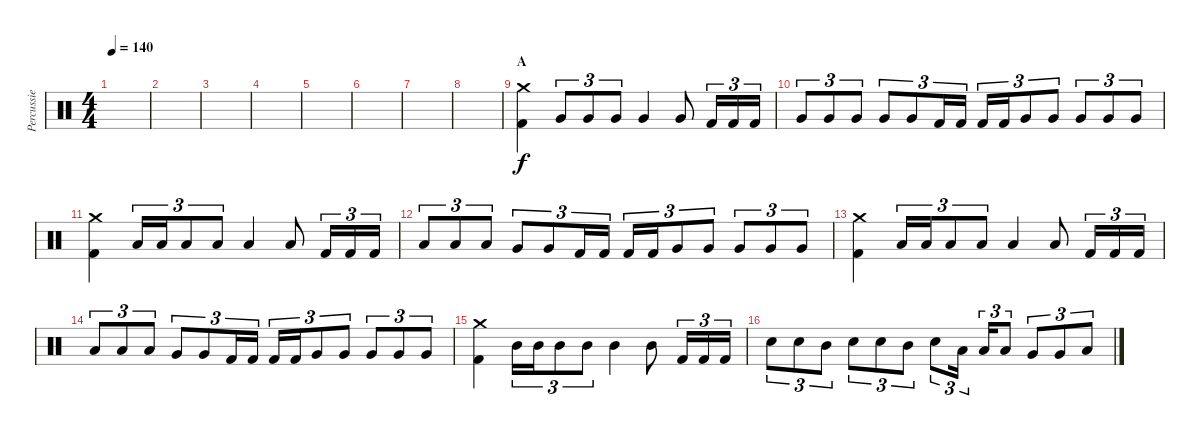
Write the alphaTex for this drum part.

\track ("Percussie" "Percussie") {instrument percussion}
\staff {score}
\articulation defaults
\ts (4 4)
\tempo 140
\clef neutral
\ks c
|
|
|
|
|
|
|
|
\section ("" "A")
("Crash medium (hit)" "Kick (hit) 2").4{volume 13} "Very Low Tom (hit)".8{tu (3 2)} "Very Low Tom (hit)".8{tu (3 2)} "Very Low Tom (hit)".8{tu (3 2)} "Very Low Tom (hit)".4 "Very Low Tom (hit)".8 "Kick (hit) 2".16{tu (3 2)} "Kick (hit) 2".16{tu (3 2)} "Kick (hit) 2".16{tu (3 2)} |
"Very Low Tom (hit)".8{tu (3 2)} "Very Low Tom (hit)".8{tu (3 2)} "Very Low Tom (hit)".8{tu (3 2)} "Very Low Tom (hit)".8{tu (3 2)} "Very Low Tom (hit)".8{tu (3 2)} "Kick (hit) 2".16{tu (3 2)} "Kick (hit) 2".16{tu (3 2)} "Kick (hit) 2".16{tu (3 2)} "Kick (hit) 2".16{tu (3 2)} "Very Low Tom (hit)".8{tu (3 2)} "Very Low Tom (hit)".8{tu (3 2)} "Very Low Tom (hit)".8{tu (3 2)} "Very Low Tom (hit)".8{tu (3 2)} "Very Low Tom (hit)".8{tu (3 2)} |
("Crash medium (hit)" "Kick (hit) 2").4 "Low Tom (hit)".16{tu (3 2)} "Low Tom (hit)".16{tu (3 2)} "Low Tom (hit)".8{tu (3 2)} "Low Tom (hit)".8{tu (3 2)} "Low Tom (hit)".4 "Low Tom (hit)".8 "Kick (hit) 2".16{tu (3 2)} "Kick (hit) 2".16{tu (3 2)} "Kick (hit) 2".16{tu (3 2)} |
"Low Tom (hit)".8{tu (3 2)} "Low Tom (hit)".8{tu (3 2)} "Low Tom (hit)".8{tu (3 2)} "Very Low Tom (hit)".8{tu (3 2)} "Very Low Tom (hit)".8{tu (3 2)} "Kick (hit) 2".16{tu (3 2)} "Kick (hit) 2".16{tu (3 2)} "Kick (hit) 2".16{tu (3 2)} "Kick (hit) 2".16{tu (3 2)} "Very Low Tom (hit)".8{tu (3 2)} "Very Low Tom (hit)".8{tu (3 2)} "Very Low Tom (hit)".8{tu (3 2)} "Very Low Tom (hit)".8{tu (3 2)} "Very Low Tom (hit)".8{tu (3 2)} |
("Crash medium (hit)" "Kick (hit) 2").4 "Low Tom (hit)".16{tu (3 2)} "Low Tom (hit)".16{tu (3 2)} "Low Tom (hit)".8{tu (3 2)} "Low Tom (hit)".8{tu (3 2)} "Low Tom (hit)".4 "Low Tom (hit)".8 "Kick (hit) 2".16{tu (3 2)} "Kick (hit) 2".16{tu (3 2)} "Kick (hit) 2".16{tu (3 2)} |
"Low Tom (hit)".8{tu (3 2)} "Low Tom (hit)".8{tu (3 2)} "Low Tom (hit)".8{tu (3 2)} "Very Low Tom (hit)".8{tu (3 2)} "Very Low Tom (hit)".8{tu (3 2)} "Kick (hit) 2".16{tu (3 2)} "Kick (hit) 2".16{tu (3 2)} "Kick (hit) 2".16{tu (3 2)} "Kick (hit) 2".16{tu (3 2)} "Very Low Tom (hit)".8{tu (3 2)} "Very Low Tom (hit)".8{tu (3 2)} "Very Low Tom (hit)".8{tu (3 2)} "Very Low Tom (hit)".8{tu (3 2)} "Very Low Tom (hit)".8{tu (3 2)} |
("Crash medium (hit)" "Kick (hit) 2").4 "Mid Tom (hit)".16{tu (3 2)} "Mid Tom (hit)".16{tu (3 2)} "Mid Tom (hit)".8{tu (3 2)} "Mid Tom (hit)".8{tu (3 2)} "Mid Tom (hit)".4 "Mid Tom (hit)".8 "Kick (hit) 2".16{tu (3 2)} "Kick (hit) 2".16{tu (3 2)} "Kick (hit) 2".16{tu (3 2)} |
"Electric Snare (hit)".8{tu (3 2)} "Electric Snare (hit)".8{tu (3 2)} "Mid Tom (hit)".8{tu (3 2)} "Electric Snare (hit)".8{tu (3 2)} "Electric Snare (hit)".8{tu (3 2)} "Mid Tom (hit)".8{tu (3 2)} "Electric Snare (hit)".8{tu (3 2)} "Low Tom (hit)".16{tu (3 2)} "Low Tom (hit)".16{tu (3 2)} "Low Tom (hit)".8{tu (3 2)} "Very Low Tom (hit)".8{tu (3 2)} "Very Low Tom (hit)".8{tu (3 2)} "Low Floor Tom (hit)".8{tu (3 2)}
